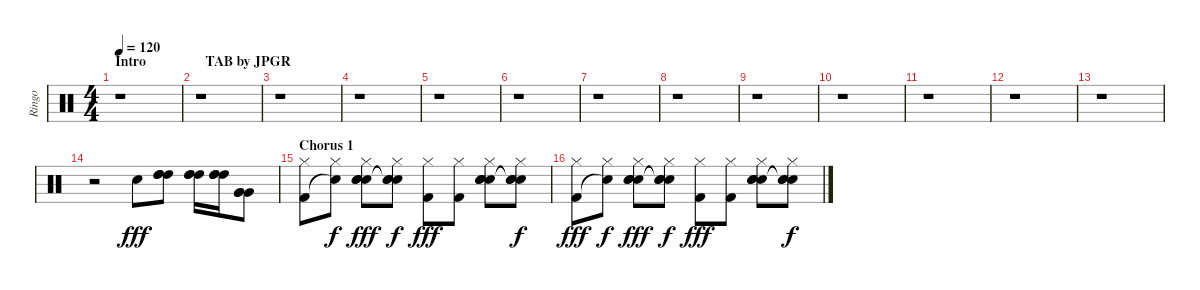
\track ("Ringo" "Ringo") {instrument percussion}
\staff {score}
\articulation defaults
\ts (4 4)
\section ("" "Intro                 TAB by JPGR")
\tempo 120
\clef neutral
\ks c
r.1{dy fff} |
r.1 |
r.1 |
r.1 |
r.1 |
r.1 |
r.1 |
r.1 |
r.1 |
r.1 |
r.1 |
r.1 |
r.1 |
r.2 "Electric Snare (hit)".8{volume 13} ("High Tom (hit)" "High Tom (hit)" "High Tom (hit)").8 ("High Tom (hit)" "High Tom (hit)" "High Tom (hit)").16 ("High Tom (hit)" "High Tom (hit)" "High Tom (hit)").16 ("Very Low Tom (hit)" "Very Low Tom (hit)" "Very Low Tom (hit)").8 |
\section ("" "Chorus 1")
("Hi-Hat (closed)" "Kick (hit) 2").8 ("Hi-Hat (closed)" "Snare (hit)"{t}).8{dy f} ("Hand Clap (hit)" "Hi-Hat (closed)" "Electric Snare (hit)" "Hand Clap (hit)").8{dy fff} ("Snare (hit)"{t} "Hi-Hat (closed)" "Snare (hit)"{t} "Snare (hit)"{t}).8{dy f} ("Hi-Hat (closed)" "Kick (hit) 2").8{dy fff} ("Hi-Hat (closed)" "Kick (hit) 2").8 ("Hand Clap (hit)" "Hi-Hat (closed)" "Electric Snare (hit)" "Hand Clap (hit)").8 ("Snare (hit)"{t} "Hi-Hat (closed)" "Snare (hit)"{t} "Snare (hit)"{t}).8{dy f} |
("Hi-Hat (closed)" "Kick (hit) 2").8{dy fff} ("Hi-Hat (closed)" "Snare (hit)"{t}).8{dy f} ("Hand Clap (hit)" "Hi-Hat (closed)" "Electric Snare (hit)" "Hand Clap (hit)").8{dy fff} ("Snare (hit)"{t} "Hi-Hat (closed)" "Snare (hit)"{t} "Snare (hit)"{t}).8{dy f} ("Hi-Hat (closed)" "Kick (hit) 2").8{dy fff} ("Hi-Hat (closed)" "Kick (hit) 2").8 ("Hand Clap (hit)" "Hi-Hat (closed)" "Electric Snare (hit)" "Hand Clap (hit)").8 ("Snare (hit)"{t} "Hi-Hat (closed)" "Snare (hit)"{t} "Snare (hit)"{t}).8{dy f}
